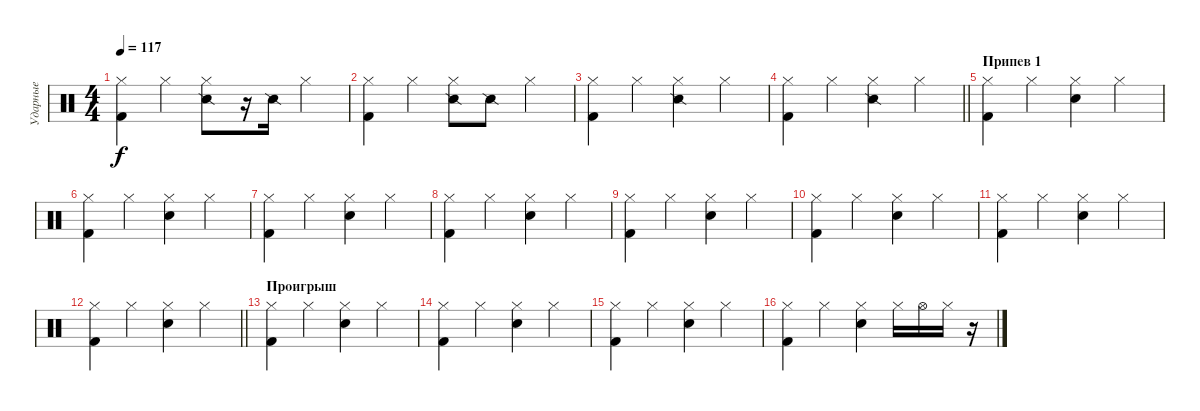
\track ("Ударные" "Ударные") {instrument percussion}
\staff {score}
\articulation defaults
\ts (4 4)
\tempo 117
\clef neutral
\ks c
("Kick (hit) 2" "Hi-Hat (closed)").4{dy f} "Hi-Hat (closed)".4 ("Snare (side stick) 2" "Hi-Hat (closed)").8 r.16 "Snare (side stick) 2".16 "Hi-Hat (closed)".4 |
("Kick (hit) 2" "Hi-Hat (closed)").4 "Hi-Hat (closed)".4 ("Snare (side stick) 2" "Hi-Hat (closed)").8 "Snare (side stick) 2".8 "Hi-Hat (closed)".4 |
("Kick (hit) 2" "Hi-Hat (closed)").4 "Hi-Hat (closed)".4 ("Snare (side stick) 2" "Hi-Hat (closed)").4 "Hi-Hat (closed)".4 |
\barLineRight lightlight
("Kick (hit) 2" "Hi-Hat (closed)").4 "Hi-Hat (closed)".4 ("Snare (side stick) 2" "Hi-Hat (closed)").4 "Hi-Hat (closed)".4 |
\section ("" "Припев 1")
("Kick (hit) 2" "Hi-Hat (closed)").4 "Hi-Hat (closed)".4 ("Electric Snare (hit)" "Hi-Hat (closed)").4 "Hi-Hat (closed)".4 |
("Kick (hit) 2" "Hi-Hat (closed)").4 "Hi-Hat (closed)".4 ("Electric Snare (hit)" "Hi-Hat (closed)").4 "Hi-Hat (closed)".4 |
("Kick (hit) 2" "Hi-Hat (closed)").4 "Hi-Hat (closed)".4 ("Electric Snare (hit)" "Hi-Hat (closed)").4 "Hi-Hat (closed)".4 |
("Kick (hit) 2" "Hi-Hat (closed)").4 "Hi-Hat (closed)".4 ("Electric Snare (hit)" "Hi-Hat (closed)").4 "Hi-Hat (closed)".4 |
("Kick (hit) 2" "Hi-Hat (closed)").4 "Hi-Hat (closed)".4 ("Electric Snare (hit)" "Hi-Hat (closed)").4 "Hi-Hat (closed)".4 |
("Kick (hit) 2" "Hi-Hat (closed)").4 "Hi-Hat (closed)".4 ("Electric Snare (hit)" "Hi-Hat (closed)").4 "Hi-Hat (closed)".4 |
("Kick (hit) 2" "Hi-Hat (closed)").4 "Hi-Hat (closed)".4 ("Electric Snare (hit)" "Hi-Hat (closed)").4 "Hi-Hat (closed)".4 |
\barLineRight lightlight
("Kick (hit) 2" "Hi-Hat (closed)").4 "Hi-Hat (closed)".4 ("Electric Snare (hit)" "Hi-Hat (closed)").4 "Hi-Hat (closed)".4 |
\section ("" "Проигрыш")
("Kick (hit) 2" "Hi-Hat (closed)").4 "Hi-Hat (closed)".4 ("Electric Snare (hit)" "Hi-Hat (closed)").4 "Hi-Hat (closed)".4 |
("Kick (hit) 2" "Hi-Hat (closed)").4 "Hi-Hat (closed)".4 ("Electric Snare (hit)" "Hi-Hat (closed)").4 "Hi-Hat (closed)".4 |
("Kick (hit) 2" "Hi-Hat (closed)").4 "Hi-Hat (closed)".4 ("Electric Snare (hit)" "Hi-Hat (closed)").4 "Hi-Hat (closed)".4 |
("Kick (hit) 2" "Hi-Hat (closed)").4 "Hi-Hat (closed)".4 ("Electric Snare (hit)" "Hi-Hat (closed)").4 "Hi-Hat (closed)".16 "Hi-Hat (open)".16 "Hi-Hat (closed)".16 r.16
